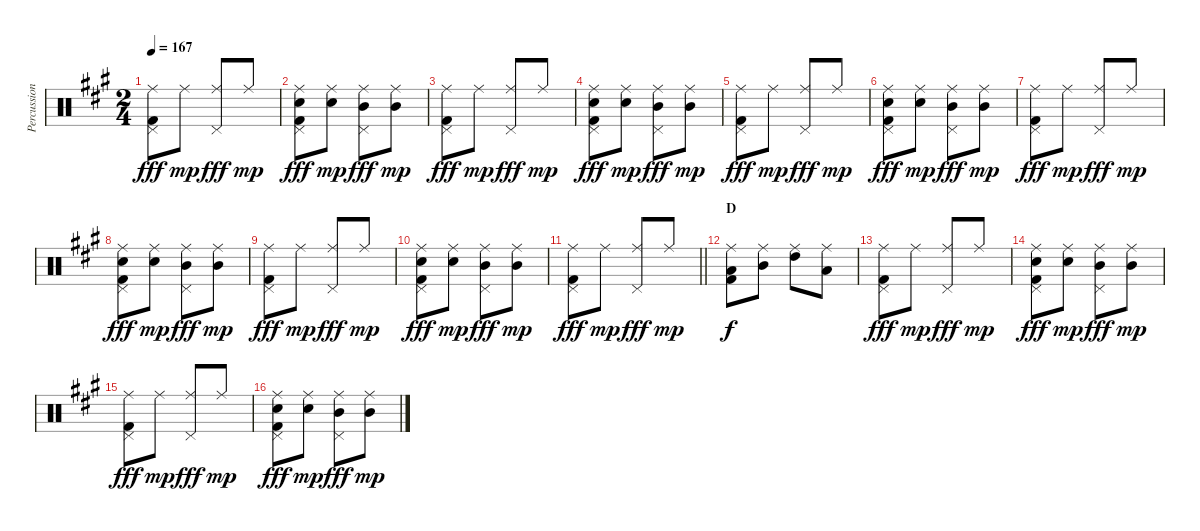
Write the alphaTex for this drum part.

\track ("Percussion" "Percussion") {instrument percussion}
\staff {score}
\articulation defaults
\ts (2 4)
\tempo 167
\clef neutral
\ks a
("Ride (middle)" "Pedal Hi-Hat (hit)" "Kick (hit) 2").8{dy fff} "Ride (middle)".8{dy mp} ("Ride (middle)" "Pedal Hi-Hat (hit)").8{dy fff} "Ride (middle)".8{dy mp} |
("Ride (middle)" "Snare (hit) 2" "Pedal Hi-Hat (hit)" "Kick (hit) 2").8{dy fff} ("Ride (middle)" "Snare (hit) 2").8{dy mp} ("Ride (middle)" "Mid Tom (hit)" "Pedal Hi-Hat (hit)").8{dy fff} ("Ride (middle)" "Mid Tom (hit)").8{dy mp} |
("Ride (middle)" "Pedal Hi-Hat (hit)" "Kick (hit) 2").8{dy fff} "Ride (middle)".8{dy mp} ("Ride (middle)" "Pedal Hi-Hat (hit)").8{dy fff} "Ride (middle)".8{dy mp} |
("Ride (middle)" "Snare (hit) 2" "Pedal Hi-Hat (hit)" "Kick (hit) 2").8{dy fff} ("Ride (middle)" "Snare (hit) 2").8{dy mp} ("Ride (middle)" "Mid Tom (hit)" "Pedal Hi-Hat (hit)").8{dy fff} ("Ride (middle)" "Mid Tom (hit)").8{dy mp} |
("Ride (middle)" "Pedal Hi-Hat (hit)" "Kick (hit) 2").8{dy fff} "Ride (middle)".8{dy mp} ("Ride (middle)" "Pedal Hi-Hat (hit)").8{dy fff} "Ride (middle)".8{dy mp} |
("Ride (middle)" "Snare (hit) 2" "Pedal Hi-Hat (hit)" "Kick (hit) 2").8{dy fff} ("Ride (middle)" "Snare (hit) 2").8{dy mp} ("Ride (middle)" "Mid Tom (hit)" "Pedal Hi-Hat (hit)").8{dy fff} ("Ride (middle)" "Mid Tom (hit)").8{dy mp} |
("Ride (middle)" "Pedal Hi-Hat (hit)" "Kick (hit) 2").8{dy fff} "Ride (middle)".8{dy mp} ("Ride (middle)" "Pedal Hi-Hat (hit)").8{dy fff} "Ride (middle)".8{dy mp} |
("Ride (middle)" "Snare (hit) 2" "Pedal Hi-Hat (hit)" "Kick (hit) 2").8{dy fff} ("Ride (middle)" "Snare (hit) 2").8{dy mp} ("Ride (middle)" "Mid Tom (hit)" "Pedal Hi-Hat (hit)").8{dy fff} ("Ride (middle)" "Mid Tom (hit)").8{dy mp} |
("Ride (middle)" "Pedal Hi-Hat (hit)" "Kick (hit) 2").8{dy fff} "Ride (middle)".8{dy mp} ("Ride (middle)" "Pedal Hi-Hat (hit)").8{dy fff} "Ride (middle)".8{dy mp} |
("Ride (middle)" "Snare (hit) 2" "Pedal Hi-Hat (hit)" "Kick (hit) 2").8{dy fff} ("Ride (middle)" "Snare (hit) 2").8{dy mp} ("Ride (middle)" "Mid Tom (hit)" "Pedal Hi-Hat (hit)").8{dy fff} ("Ride (middle)" "Mid Tom (hit)").8{dy mp} |
\barLineRight lightlight
("Ride (middle)" "Pedal Hi-Hat (hit)" "Kick (hit) 2").8{dy fff} "Ride (middle)".8{dy mp} ("Ride (middle)" "Pedal Hi-Hat (hit)").8{dy fff} "Ride (middle)".8{dy mp} |
\section ("" "D")
("Ride (middle)" "Low Tom (hit)" "Kick (hit) 2").8{dy f} ("Ride (middle)" "Mid Tom (hit)").8 ("Ride (middle)" "High Tom (hit)").8 ("Ride (middle)" "Low Tom (hit)").8 |
("Ride (middle)" "Pedal Hi-Hat (hit)" "Kick (hit) 2").8{dy fff} "Ride (middle)".8{dy mp} ("Ride (middle)" "Pedal Hi-Hat (hit)").8{dy fff} "Ride (middle)".8{dy mp} |
("Ride (middle)" "Snare (hit) 2" "Pedal Hi-Hat (hit)" "Kick (hit) 2").8{dy fff} ("Ride (middle)" "Snare (hit) 2").8{dy mp} ("Ride (middle)" "Mid Tom (hit)" "Pedal Hi-Hat (hit)").8{dy fff} ("Ride (middle)" "Mid Tom (hit)").8{dy mp} |
("Ride (middle)" "Pedal Hi-Hat (hit)" "Kick (hit) 2").8{dy fff} "Ride (middle)".8{dy mp} ("Ride (middle)" "Pedal Hi-Hat (hit)").8{dy fff} "Ride (middle)".8{dy mp} |
("Ride (middle)" "Snare (hit) 2" "Pedal Hi-Hat (hit)" "Kick (hit) 2").8{dy fff} ("Ride (middle)" "Snare (hit) 2").8{dy mp} ("Ride (middle)" "Mid Tom (hit)" "Pedal Hi-Hat (hit)").8{dy fff} ("Ride (middle)" "Mid Tom (hit)").8{dy mp}
